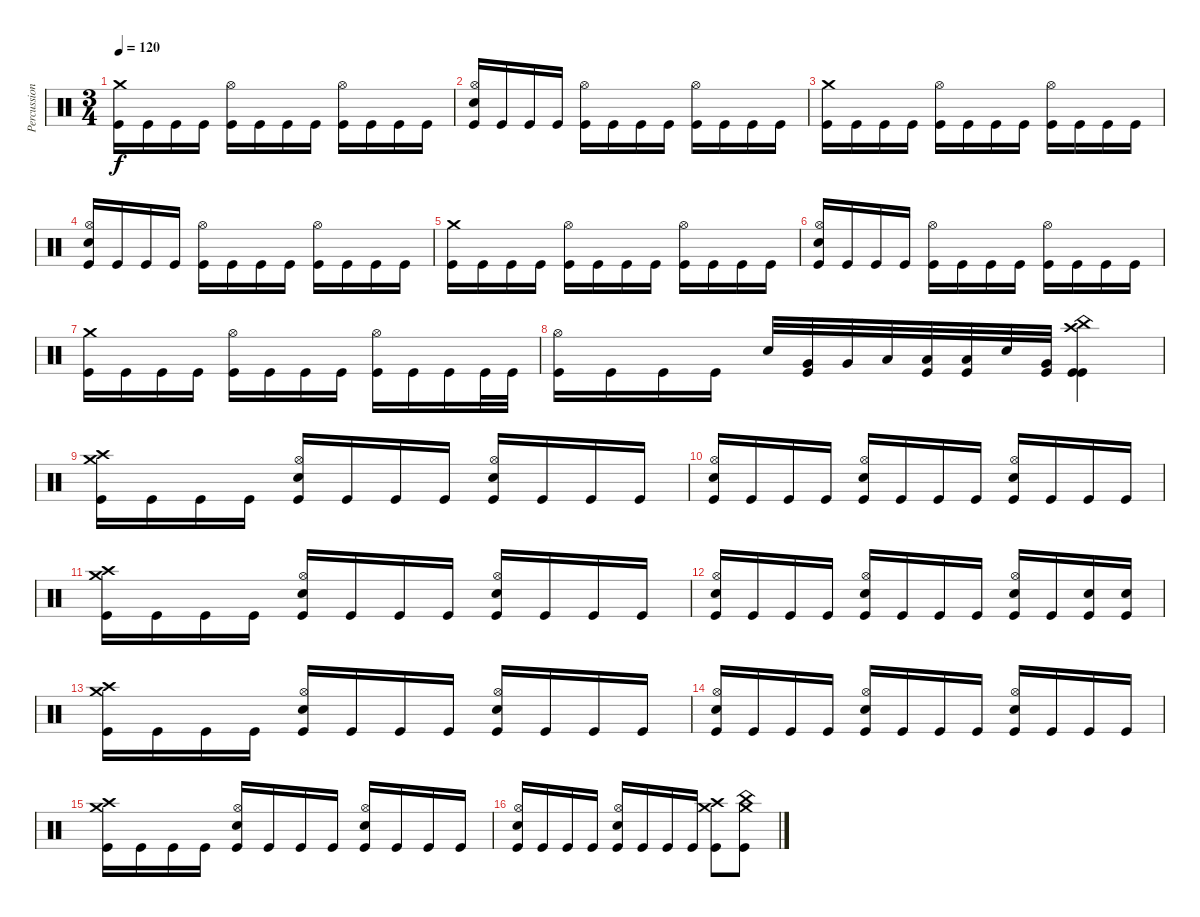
\track ("Percussion" "Percussion") {instrument percussion}
\staff {score}
\articulation defaults
\ts (3 4)
\tempo 120
\clef neutral
\ks c
("Crash medium (hit)" "Kick (hit)").16{dy f} "Kick (hit)".16 "Kick (hit)".16 "Kick (hit)".16 ("Hi-Hat (open)" "Kick (hit)").16 "Kick (hit)".16 "Kick (hit)".16 "Kick (hit)".16 ("Hi-Hat (open)" "Kick (hit)").16 "Kick (hit)".16 "Kick (hit)".16 "Kick (hit)".16 |
("Hi-Hat (open)" "Snare (hit) 2" "Kick (hit)").16 "Kick (hit)".16 "Kick (hit)".16 "Kick (hit)".16 ("Hi-Hat (open)" "Kick (hit)").16 "Kick (hit)".16 "Kick (hit)".16 "Kick (hit)".16 ("Hi-Hat (open)" "Kick (hit)").16 "Kick (hit)".16 "Kick (hit)".16 "Kick (hit)".16 |
("Crash medium (hit)" "Kick (hit)").16 "Kick (hit)".16 "Kick (hit)".16 "Kick (hit)".16 ("Hi-Hat (open)" "Kick (hit)").16 "Kick (hit)".16 "Kick (hit)".16 "Kick (hit)".16 ("Hi-Hat (open)" "Kick (hit)").16 "Kick (hit)".16 "Kick (hit)".16 "Kick (hit)".16 |
("Hi-Hat (open)" "Snare (hit) 2" "Kick (hit)").16 "Kick (hit)".16 "Kick (hit)".16 "Kick (hit)".16 ("Hi-Hat (open)" "Kick (hit)").16 "Kick (hit)".16 "Kick (hit)".16 "Kick (hit)".16 ("Hi-Hat (open)" "Kick (hit)").16 "Kick (hit)".16 "Kick (hit)".16 "Kick (hit)".16 |
("Crash medium (hit)" "Kick (hit)").16 "Kick (hit)".16 "Kick (hit)".16 "Kick (hit)".16 ("Hi-Hat (open)" "Kick (hit)").16 "Kick (hit)".16 "Kick (hit)".16 "Kick (hit)".16 ("Hi-Hat (open)" "Kick (hit)").16 "Kick (hit)".16 "Kick (hit)".16 "Kick (hit)".16 |
("Hi-Hat (open)" "Snare (hit) 2" "Kick (hit)").16 "Kick (hit)".16 "Kick (hit)".16 "Kick (hit)".16 ("Hi-Hat (open)" "Kick (hit)").16 "Kick (hit)".16 "Kick (hit)".16 "Kick (hit)".16 ("Hi-Hat (open)" "Kick (hit)").16 "Kick (hit)".16 "Kick (hit)".16 "Kick (hit)".16 |
("Crash medium (hit)" "Kick (hit)").16 "Kick (hit)".16 "Kick (hit)".16 "Kick (hit)".16 ("Hi-Hat (open)" "Kick (hit)").16 "Kick (hit)".16 "Kick (hit)".16 "Kick (hit)".16 ("Hi-Hat (open)" "Kick (hit)").16 "Kick (hit)".16 "Kick (hit)".16 "Kick (hit)".32 "Kick (hit)".32 |
("Hi-Hat (open)" "Kick (hit)").16 "Kick (hit)".16 "Kick (hit)".16 "Kick (hit)".16 "Electric Snare (hit)".32 ("Very Low Tom (hit)" "Kick (hit)").32 "Very Low Tom (hit)".32 "Low Tom (hit)".32 ("Low Tom (hit)" "Kick (hit)").32 ("Low Tom (hit)" "Kick (hit)").32 "Electric Snare (hit)".32 ("Very Low Tom (hit)" "Kick (hit)").32 ("China (hit)" "Crash high (hit)" "Kick (hit)" "Kick (hit)").4 |
("Crash medium (hit)" "Crash high (hit)" "Kick (hit)").16 "Kick (hit)".16 "Kick (hit)".16 "Kick (hit)".16 ("Hi-Hat (open)" "Snare (hit) 2" "Kick (hit)").16 "Kick (hit)".16 "Kick (hit)".16 "Kick (hit)".16 ("Hi-Hat (open)" "Snare (hit) 2" "Kick (hit)").16 "Kick (hit)".16 "Kick (hit)".16 "Kick (hit)".16 |
("Hi-Hat (open)" "Snare (hit) 2" "Kick (hit)").16 "Kick (hit)".16 "Kick (hit)".16 "Kick (hit)".16 ("Hi-Hat (open)" "Snare (hit) 2" "Kick (hit)").16 "Kick (hit)".16 "Kick (hit)".16 "Kick (hit)".16 ("Hi-Hat (open)" "Snare (hit) 2" "Kick (hit)").16 "Kick (hit)".16 "Kick (hit)".16 "Kick (hit)".16 |
("Crash medium (hit)" "Crash high (hit)" "Kick (hit)").16 "Kick (hit)".16 "Kick (hit)".16 "Kick (hit)".16 ("Hi-Hat (open)" "Snare (hit) 2" "Kick (hit)").16 "Kick (hit)".16 "Kick (hit)".16 "Kick (hit)".16 ("Hi-Hat (open)" "Snare (hit) 2" "Kick (hit)").16 "Kick (hit)".16 "Kick (hit)".16 "Kick (hit)".16 |
("Hi-Hat (open)" "Snare (hit) 2" "Kick (hit)").16 "Kick (hit)".16 "Kick (hit)".16 "Kick (hit)".16 ("Hi-Hat (open)" "Snare (hit) 2" "Kick (hit)").16 "Kick (hit)".16 "Kick (hit)".16 "Kick (hit)".16 ("Hi-Hat (open)" "Snare (hit) 2" "Kick (hit)").16 "Kick (hit)".16 ("Snare (hit) 2" "Kick (hit)").16 ("Snare (hit) 2" "Kick (hit)").16 |
("Crash medium (hit)" "Crash high (hit)" "Kick (hit)").16 "Kick (hit)".16 "Kick (hit)".16 "Kick (hit)".16 ("Hi-Hat (open)" "Snare (hit) 2" "Kick (hit)").16 "Kick (hit)".16 "Kick (hit)".16 "Kick (hit)".16 ("Hi-Hat (open)" "Snare (hit) 2" "Kick (hit)").16 "Kick (hit)".16 "Kick (hit)".16 "Kick (hit)".16 |
("Hi-Hat (open)" "Snare (hit) 2" "Kick (hit)").16 "Kick (hit)".16 "Kick (hit)".16 "Kick (hit)".16 ("Hi-Hat (open)" "Snare (hit) 2" "Kick (hit)").16 "Kick (hit)".16 "Kick (hit)".16 "Kick (hit)".16 ("Hi-Hat (open)" "Snare (hit) 2" "Kick (hit)").16 "Kick (hit)".16 "Kick (hit)".16 "Kick (hit)".16 |
("Crash medium (hit)" "Crash high (hit)" "Kick (hit)").16 "Kick (hit)".16 "Kick (hit)".16 "Kick (hit)".16 ("Hi-Hat (open)" "Snare (hit) 2" "Kick (hit)").16 "Kick (hit)".16 "Kick (hit)".16 "Kick (hit)".16 ("Hi-Hat (open)" "Snare (hit) 2" "Kick (hit)").16 "Kick (hit)".16 "Kick (hit)".16 "Kick (hit)".16 |
("Hi-Hat (open)" "Snare (hit) 2" "Kick (hit)").16 "Kick (hit)".16 "Kick (hit)".16 "Kick (hit)".16 ("Hi-Hat (open)" "Snare (hit) 2" "Kick (hit)").16 "Kick (hit)".16 "Kick (hit)".16 "Kick (hit)".16 ("Crash medium (hit)" "Crash high (hit)" "Kick (hit)").8 ("Crash medium (hit)" "China (hit)" "Kick (hit)").8
